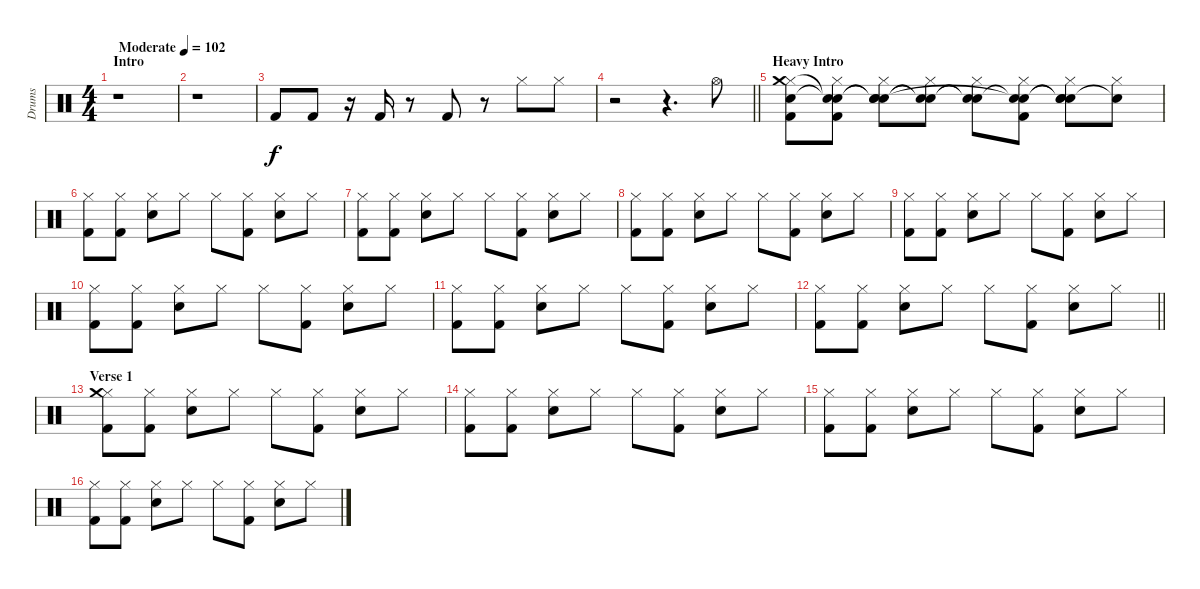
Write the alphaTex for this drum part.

\track ("Drums" "Drums") {instrument percussion}
\staff {score}
\articulation defaults
\ts (4 4)
\section ("" "Intro")
\tempo (102 "Moderate")
\clef neutral
\ks c
r.1{dy f} |
r.1 |
"Kick (hit) 2".8 "Kick (hit) 2".8 r.16 "Kick (hit) 2".16 r.8 "Kick (hit) 2".8 r.8 "Hi-Hat (closed)".8 "Hi-Hat (closed)".8 |
\barLineRight lightlight
r.2 r.4{d} "Hi-Hat (open)".8 |
\section ("" "Heavy Intro")
("Hi-Hat (closed)" "Kick (hit) 2" "Snare (hit)" "Crash medium (hit)").8 ("Hi-Hat (closed)" "Kick (hit) 2" "Snare (hit)"{t} "Snare (hit)"{t}).8 ("Hi-Hat (closed)" "Snare (hit) 2" "Snare (hit)"{t} "Snare (hit)"{t}).8 ("Hi-Hat (closed)" "Snare (hit)"{t} "Snare (hit)"{t}).8 ("Hi-Hat (closed)" "Snare (hit)"{t} "Snare (hit)"{t}).8 ("Hi-Hat (closed)" "Kick (hit) 2" "Snare (hit)"{t} "Snare (hit)"{t}).8 ("Hi-Hat (closed)" "Snare (hit) 2" "Snare (hit)"{t} "Snare (hit)"{t}).8 ("Hi-Hat (closed)" "Snare (hit)"{t}).8 |
("Hi-Hat (closed)" "Kick (hit) 2").8 ("Hi-Hat (closed)" "Kick (hit) 2").8 ("Hi-Hat (closed)" "Snare (hit) 2").8 "Hi-Hat (closed)".8 "Hi-Hat (closed)".8 ("Hi-Hat (closed)" "Kick (hit) 2").8 ("Hi-Hat (closed)" "Snare (hit) 2").8 "Hi-Hat (closed)".8 |
("Hi-Hat (closed)" "Kick (hit) 2").8 ("Hi-Hat (closed)" "Kick (hit) 2").8 ("Hi-Hat (closed)" "Snare (hit) 2").8 "Hi-Hat (closed)".8 "Hi-Hat (closed)".8 ("Hi-Hat (closed)" "Kick (hit) 2").8 ("Hi-Hat (closed)" "Snare (hit) 2").8 "Hi-Hat (closed)".8 |
("Hi-Hat (closed)" "Kick (hit) 2").8 ("Hi-Hat (closed)" "Kick (hit) 2").8 ("Hi-Hat (closed)" "Snare (hit) 2").8 "Hi-Hat (closed)".8 "Hi-Hat (closed)".8 ("Hi-Hat (closed)" "Kick (hit) 2").8 ("Hi-Hat (closed)" "Snare (hit) 2").8 "Hi-Hat (closed)".8 |
("Hi-Hat (closed)" "Kick (hit) 2").8 ("Hi-Hat (closed)" "Kick (hit) 2").8 ("Hi-Hat (closed)" "Snare (hit) 2").8 "Hi-Hat (closed)".8 "Hi-Hat (closed)".8 ("Hi-Hat (closed)" "Kick (hit) 2").8 ("Hi-Hat (closed)" "Snare (hit) 2").8 "Hi-Hat (closed)".8 |
("Hi-Hat (closed)" "Kick (hit) 2").8 ("Hi-Hat (closed)" "Kick (hit) 2").8 ("Hi-Hat (closed)" "Snare (hit) 2").8 "Hi-Hat (closed)".8 "Hi-Hat (closed)".8 ("Hi-Hat (closed)" "Kick (hit) 2").8 ("Hi-Hat (closed)" "Snare (hit) 2").8 "Hi-Hat (closed)".8 |
("Hi-Hat (closed)" "Kick (hit) 2").8 ("Hi-Hat (closed)" "Kick (hit) 2").8 ("Hi-Hat (closed)" "Snare (hit) 2").8 "Hi-Hat (closed)".8 "Hi-Hat (closed)".8 ("Hi-Hat (closed)" "Kick (hit) 2").8 ("Hi-Hat (closed)" "Snare (hit) 2").8 "Hi-Hat (closed)".8 |
\barLineRight lightlight
("Hi-Hat (closed)" "Kick (hit) 2").8 ("Hi-Hat (closed)" "Kick (hit) 2").8 ("Hi-Hat (closed)" "Snare (hit) 2").8 "Hi-Hat (closed)".8 "Hi-Hat (closed)".8 ("Hi-Hat (closed)" "Kick (hit) 2").8 ("Hi-Hat (closed)" "Snare (hit) 2").8 "Hi-Hat (closed)".8 |
\section ("" "Verse 1")
("Hi-Hat (closed)" "Kick (hit) 2" "Crash medium (hit)").8 ("Hi-Hat (closed)" "Kick (hit) 2").8 ("Hi-Hat (closed)" "Snare (hit) 2").8 "Hi-Hat (closed)".8 "Hi-Hat (closed)".8 ("Hi-Hat (closed)" "Kick (hit) 2").8 ("Hi-Hat (closed)" "Snare (hit) 2").8 "Hi-Hat (closed)".8 |
("Hi-Hat (closed)" "Kick (hit) 2").8 ("Hi-Hat (closed)" "Kick (hit) 2").8 ("Hi-Hat (closed)" "Snare (hit) 2").8 "Hi-Hat (closed)".8 "Hi-Hat (closed)".8 ("Hi-Hat (closed)" "Kick (hit) 2").8 ("Hi-Hat (closed)" "Snare (hit) 2").8 "Hi-Hat (closed)".8 |
("Hi-Hat (closed)" "Kick (hit) 2").8 ("Hi-Hat (closed)" "Kick (hit) 2").8 ("Hi-Hat (closed)" "Snare (hit) 2").8 "Hi-Hat (closed)".8 "Hi-Hat (closed)".8 ("Hi-Hat (closed)" "Kick (hit) 2").8 ("Hi-Hat (closed)" "Snare (hit) 2").8 "Hi-Hat (closed)".8 |
("Hi-Hat (closed)" "Kick (hit) 2").8 ("Hi-Hat (closed)" "Kick (hit) 2").8 ("Hi-Hat (closed)" "Snare (hit) 2").8 "Hi-Hat (closed)".8 "Hi-Hat (closed)".8 ("Hi-Hat (closed)" "Kick (hit) 2").8 ("Hi-Hat (closed)" "Snare (hit) 2").8 "Hi-Hat (closed)".8
